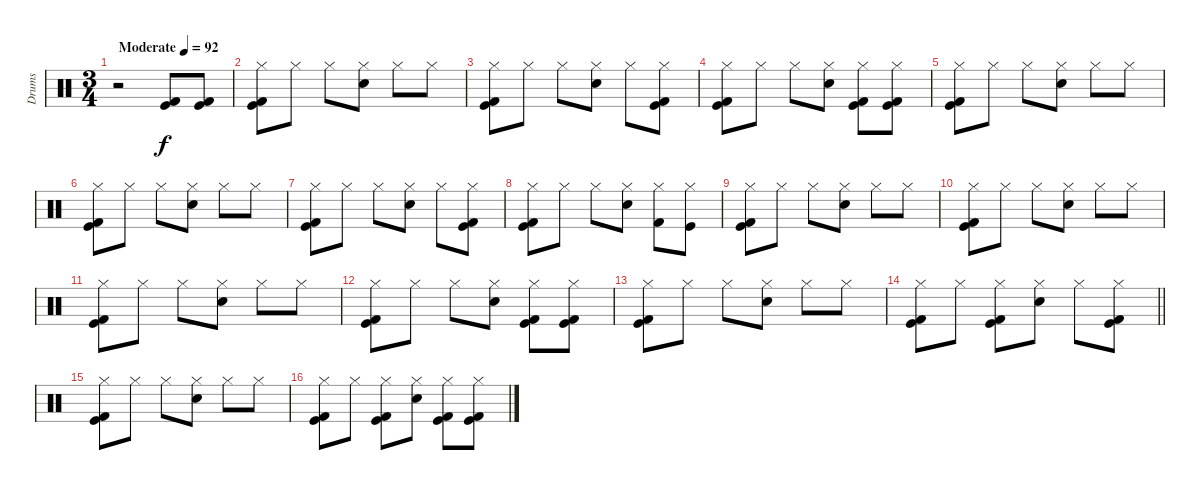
\track ("Drums" "Drums") {instrument percussion}
\staff {score}
\articulation defaults
\ts (3 4)
\tempo (92 "Moderate")
\clef neutral
\ks c
r.2{dy f} ("Kick (hit)" "Kick (hit) 2").8 ("Kick (hit)" "Kick (hit) 2").8 |
("Hi-Hat (closed)" "Kick (hit)" "Kick (hit) 2").8 "Hi-Hat (closed)".8 "Hi-Hat (closed)".8 ("Hi-Hat (closed)" "Electric Snare (hit)").8 "Hi-Hat (closed)".8 "Hi-Hat (closed)".8 |
("Hi-Hat (closed)" "Kick (hit)" "Kick (hit) 2").8 "Hi-Hat (closed)".8 "Hi-Hat (closed)".8 ("Hi-Hat (closed)" "Electric Snare (hit)").8 "Hi-Hat (closed)".8 ("Hi-Hat (closed)" "Kick (hit)" "Kick (hit) 2").8 |
("Hi-Hat (closed)" "Kick (hit)" "Kick (hit) 2").8 "Hi-Hat (closed)".8 "Hi-Hat (closed)".8 ("Hi-Hat (closed)" "Electric Snare (hit)").8 ("Hi-Hat (closed)" "Kick (hit)" "Kick (hit) 2").8 ("Hi-Hat (closed)" "Kick (hit)" "Kick (hit) 2").8 |
("Hi-Hat (closed)" "Kick (hit)" "Kick (hit) 2").8 "Hi-Hat (closed)".8 "Hi-Hat (closed)".8 ("Hi-Hat (closed)" "Electric Snare (hit)").8 "Hi-Hat (closed)".8 "Hi-Hat (closed)".8 |
("Hi-Hat (closed)" "Kick (hit)" "Kick (hit) 2").8 "Hi-Hat (closed)".8 "Hi-Hat (closed)".8 ("Hi-Hat (closed)" "Electric Snare (hit)").8 "Hi-Hat (closed)".8 "Hi-Hat (closed)".8 |
("Hi-Hat (closed)" "Kick (hit)" "Kick (hit) 2").8 "Hi-Hat (closed)".8 "Hi-Hat (closed)".8 ("Hi-Hat (closed)" "Electric Snare (hit)").8 "Hi-Hat (closed)".8 ("Hi-Hat (closed)" "Kick (hit)" "Kick (hit) 2").8 |
("Hi-Hat (closed)" "Kick (hit)" "Kick (hit) 2").8 "Hi-Hat (closed)".8 "Hi-Hat (closed)".8 ("Hi-Hat (closed)" "Electric Snare (hit)").8 ("Hi-Hat (closed)" "Kick (hit) 2").8 ("Hi-Hat (closed)" "Kick (hit)").8 |
("Hi-Hat (closed)" "Kick (hit)" "Kick (hit) 2").8 "Hi-Hat (closed)".8 "Hi-Hat (closed)".8 ("Hi-Hat (closed)" "Electric Snare (hit)").8 "Hi-Hat (closed)".8 "Hi-Hat (closed)".8 |
("Hi-Hat (closed)" "Kick (hit)" "Kick (hit) 2").8 "Hi-Hat (closed)".8 "Hi-Hat (closed)".8 ("Hi-Hat (closed)" "Electric Snare (hit)").8 "Hi-Hat (closed)".8 "Hi-Hat (closed)".8 |
("Hi-Hat (closed)" "Kick (hit)" "Kick (hit) 2").8 "Hi-Hat (closed)".8 "Hi-Hat (closed)".8 ("Hi-Hat (closed)" "Electric Snare (hit)").8 "Hi-Hat (closed)".8 "Hi-Hat (closed)".8 |
("Hi-Hat (closed)" "Kick (hit)" "Kick (hit) 2").8 "Hi-Hat (closed)".8 "Hi-Hat (closed)".8 ("Hi-Hat (closed)" "Electric Snare (hit)").8 ("Hi-Hat (closed)" "Kick (hit)" "Kick (hit) 2").8 ("Hi-Hat (closed)" "Kick (hit)" "Kick (hit) 2").8 |
("Hi-Hat (closed)" "Kick (hit)" "Kick (hit) 2").8 "Hi-Hat (closed)".8 "Hi-Hat (closed)".8 ("Hi-Hat (closed)" "Electric Snare (hit)").8 "Hi-Hat (closed)".8 "Hi-Hat (closed)".8 |
\barLineRight lightlight
("Hi-Hat (closed)" "Kick (hit)" "Kick (hit) 2").8 "Hi-Hat (closed)".8 ("Hi-Hat (closed)" "Kick (hit)" "Kick (hit) 2").8 ("Hi-Hat (closed)" "Electric Snare (hit)").8 "Hi-Hat (closed)".8 ("Hi-Hat (closed)" "Kick (hit)" "Kick (hit) 2").8 |
("Hi-Hat (closed)" "Kick (hit)" "Kick (hit) 2").8 "Hi-Hat (closed)".8 "Hi-Hat (closed)".8 ("Hi-Hat (closed)" "Electric Snare (hit)").8 "Hi-Hat (closed)".8 "Hi-Hat (closed)".8 |
("Hi-Hat (closed)" "Kick (hit)" "Kick (hit) 2").8 "Hi-Hat (closed)".8 ("Hi-Hat (closed)" "Kick (hit)" "Kick (hit) 2").8 ("Hi-Hat (closed)" "Electric Snare (hit)").8 ("Hi-Hat (closed)" "Kick (hit)" "Kick (hit) 2").8 ("Hi-Hat (closed)" "Kick (hit)" "Kick (hit) 2").8
